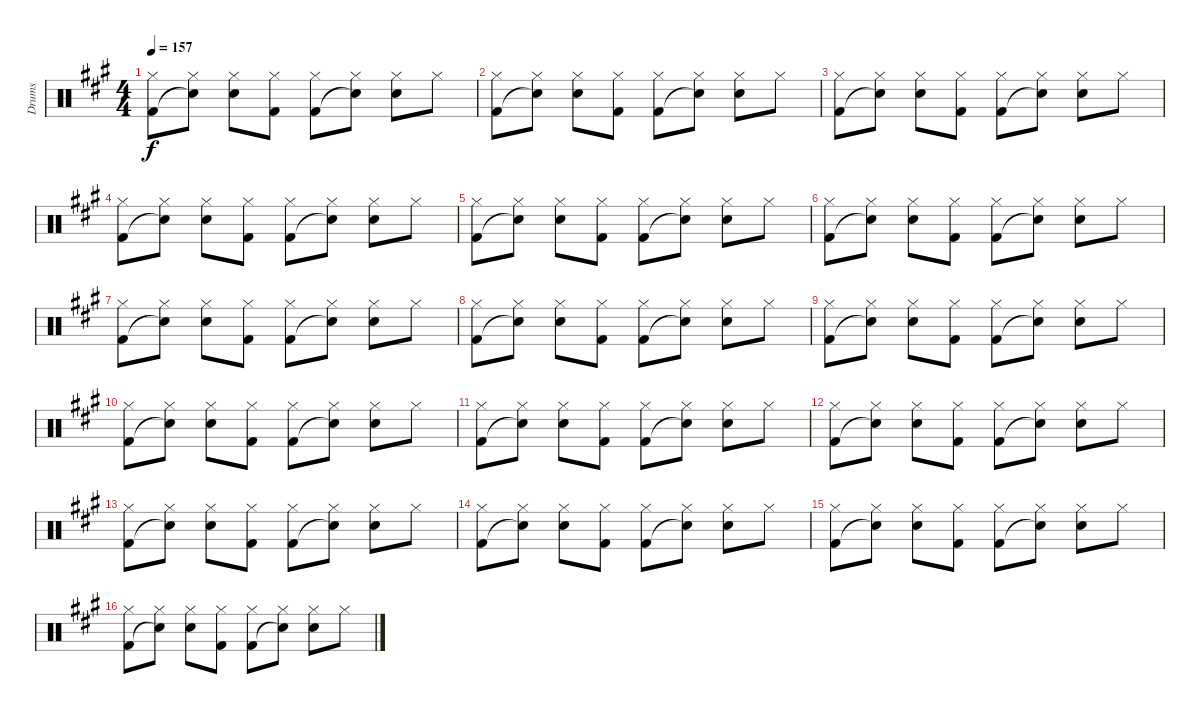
\track ("Drums" "Drums") {instrument percussion}
\staff {score}
\articulation defaults
\ts (4 4)
\tempo 157
\clef neutral
\ks a
("Hi-Hat (closed)" "Kick (hit) 2").8{dy f} ("Hi-Hat (closed)" "Snare (hit)"{t}).8 ("Hi-Hat (closed)" "Snare (hit) 2").8 ("Hi-Hat (closed)" "Kick (hit) 2").8 ("Hi-Hat (closed)" "Kick (hit) 2").8 ("Hi-Hat (closed)" "Snare (hit)"{t}).8 ("Hi-Hat (closed)" "Snare (hit) 2").8 "Hi-Hat (closed)".8 |
("Hi-Hat (closed)" "Kick (hit) 2").8 ("Hi-Hat (closed)" "Snare (hit)"{t}).8 ("Hi-Hat (closed)" "Snare (hit) 2").8 ("Hi-Hat (closed)" "Kick (hit) 2").8 ("Hi-Hat (closed)" "Kick (hit) 2").8 ("Hi-Hat (closed)" "Snare (hit)"{t}).8 ("Hi-Hat (closed)" "Snare (hit) 2").8 "Hi-Hat (closed)".8 |
("Hi-Hat (closed)" "Kick (hit) 2").8 ("Hi-Hat (closed)" "Snare (hit)"{t}).8 ("Hi-Hat (closed)" "Snare (hit) 2").8 ("Hi-Hat (closed)" "Kick (hit) 2").8 ("Hi-Hat (closed)" "Kick (hit) 2").8 ("Hi-Hat (closed)" "Snare (hit)"{t}).8 ("Hi-Hat (closed)" "Snare (hit) 2").8 "Hi-Hat (closed)".8 |
("Hi-Hat (closed)" "Kick (hit) 2").8 ("Hi-Hat (closed)" "Snare (hit)"{t}).8 ("Hi-Hat (closed)" "Snare (hit) 2").8 ("Hi-Hat (closed)" "Kick (hit) 2").8 ("Hi-Hat (closed)" "Kick (hit) 2").8 ("Hi-Hat (closed)" "Snare (hit)"{t}).8 ("Hi-Hat (closed)" "Snare (hit) 2").8 "Hi-Hat (closed)".8 |
("Hi-Hat (closed)" "Kick (hit) 2").8 ("Hi-Hat (closed)" "Snare (hit)"{t}).8 ("Hi-Hat (closed)" "Snare (hit) 2").8 ("Hi-Hat (closed)" "Kick (hit) 2").8 ("Hi-Hat (closed)" "Kick (hit) 2").8 ("Hi-Hat (closed)" "Snare (hit)"{t}).8 ("Hi-Hat (closed)" "Snare (hit) 2").8 "Hi-Hat (closed)".8 |
("Hi-Hat (closed)" "Kick (hit) 2").8 ("Hi-Hat (closed)" "Snare (hit)"{t}).8 ("Hi-Hat (closed)" "Snare (hit) 2").8 ("Hi-Hat (closed)" "Kick (hit) 2").8 ("Hi-Hat (closed)" "Kick (hit) 2").8 ("Hi-Hat (closed)" "Snare (hit)"{t}).8 ("Hi-Hat (closed)" "Snare (hit) 2").8 "Hi-Hat (closed)".8 |
("Hi-Hat (closed)" "Kick (hit) 2").8 ("Hi-Hat (closed)" "Snare (hit)"{t}).8 ("Hi-Hat (closed)" "Snare (hit) 2").8 ("Hi-Hat (closed)" "Kick (hit) 2").8 ("Hi-Hat (closed)" "Kick (hit) 2").8 ("Hi-Hat (closed)" "Snare (hit)"{t}).8 ("Hi-Hat (closed)" "Snare (hit) 2").8 "Hi-Hat (closed)".8 |
("Hi-Hat (closed)" "Kick (hit) 2").8 ("Hi-Hat (closed)" "Snare (hit)"{t}).8 ("Hi-Hat (closed)" "Snare (hit) 2").8 ("Hi-Hat (closed)" "Kick (hit) 2").8 ("Hi-Hat (closed)" "Kick (hit) 2").8 ("Hi-Hat (closed)" "Snare (hit)"{t}).8 ("Hi-Hat (closed)" "Snare (hit) 2").8 "Hi-Hat (closed)".8 |
("Hi-Hat (closed)" "Kick (hit) 2").8 ("Hi-Hat (closed)" "Snare (hit)"{t}).8 ("Hi-Hat (closed)" "Snare (hit) 2").8 ("Hi-Hat (closed)" "Kick (hit) 2").8 ("Hi-Hat (closed)" "Kick (hit) 2").8 ("Hi-Hat (closed)" "Snare (hit)"{t}).8 ("Hi-Hat (closed)" "Snare (hit) 2").8 "Hi-Hat (closed)".8 |
("Hi-Hat (closed)" "Kick (hit) 2").8 ("Hi-Hat (closed)" "Snare (hit)"{t}).8 ("Hi-Hat (closed)" "Snare (hit) 2").8 ("Hi-Hat (closed)" "Kick (hit) 2").8 ("Hi-Hat (closed)" "Kick (hit) 2").8 ("Hi-Hat (closed)" "Snare (hit)"{t}).8 ("Hi-Hat (closed)" "Snare (hit) 2").8 "Hi-Hat (closed)".8 |
("Hi-Hat (closed)" "Kick (hit) 2").8 ("Hi-Hat (closed)" "Snare (hit)"{t}).8 ("Hi-Hat (closed)" "Snare (hit) 2").8 ("Hi-Hat (closed)" "Kick (hit) 2").8 ("Hi-Hat (closed)" "Kick (hit) 2").8 ("Hi-Hat (closed)" "Snare (hit)"{t}).8 ("Hi-Hat (closed)" "Snare (hit) 2").8 "Hi-Hat (closed)".8 |
("Hi-Hat (closed)" "Kick (hit) 2").8 ("Hi-Hat (closed)" "Snare (hit)"{t}).8 ("Hi-Hat (closed)" "Snare (hit) 2").8 ("Hi-Hat (closed)" "Kick (hit) 2").8 ("Hi-Hat (closed)" "Kick (hit) 2").8 ("Hi-Hat (closed)" "Snare (hit)"{t}).8 ("Hi-Hat (closed)" "Snare (hit) 2").8 "Hi-Hat (closed)".8 |
("Hi-Hat (closed)" "Kick (hit) 2").8 ("Hi-Hat (closed)" "Snare (hit)"{t}).8 ("Hi-Hat (closed)" "Snare (hit) 2").8 ("Hi-Hat (closed)" "Kick (hit) 2").8 ("Hi-Hat (closed)" "Kick (hit) 2").8 ("Hi-Hat (closed)" "Snare (hit)"{t}).8 ("Hi-Hat (closed)" "Snare (hit) 2").8 "Hi-Hat (closed)".8 |
("Hi-Hat (closed)" "Kick (hit) 2").8 ("Hi-Hat (closed)" "Snare (hit)"{t}).8 ("Hi-Hat (closed)" "Snare (hit) 2").8 ("Hi-Hat (closed)" "Kick (hit) 2").8 ("Hi-Hat (closed)" "Kick (hit) 2").8 ("Hi-Hat (closed)" "Snare (hit)"{t}).8 ("Hi-Hat (closed)" "Snare (hit) 2").8 "Hi-Hat (closed)".8 |
("Hi-Hat (closed)" "Kick (hit) 2").8 ("Hi-Hat (closed)" "Snare (hit)"{t}).8 ("Hi-Hat (closed)" "Snare (hit) 2").8 ("Hi-Hat (closed)" "Kick (hit) 2").8 ("Hi-Hat (closed)" "Kick (hit) 2").8 ("Hi-Hat (closed)" "Snare (hit)"{t}).8 ("Hi-Hat (closed)" "Snare (hit) 2").8 "Hi-Hat (closed)".8 |
("Hi-Hat (closed)" "Kick (hit) 2").8 ("Hi-Hat (closed)" "Snare (hit)"{t}).8 ("Hi-Hat (closed)" "Snare (hit) 2").8 ("Hi-Hat (closed)" "Kick (hit) 2").8 ("Hi-Hat (closed)" "Kick (hit) 2").8 ("Hi-Hat (closed)" "Snare (hit)"{t}).8 ("Hi-Hat (closed)" "Snare (hit) 2").8 "Hi-Hat (closed)".8
